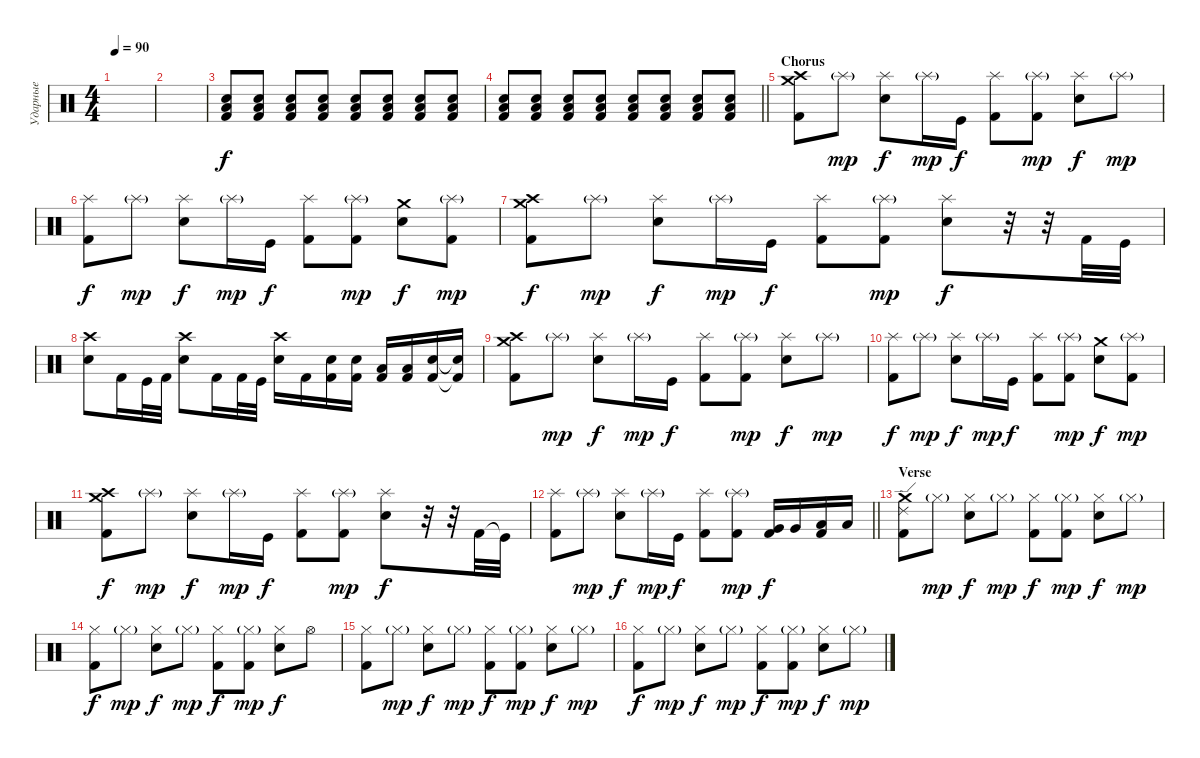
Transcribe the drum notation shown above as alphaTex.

\track ("Ударные" "Ударные") {instrument percussion}
\staff {score}
\articulation defaults
\ts (4 4)
\tempo 90
\clef neutral
\ks c
|
|
("Electric Snare (hit)" "Low Floor Tom (hit)" "Kick (hit) 2").8{dy f} ("Electric Snare (hit)" "Low Floor Tom (hit)" "Kick (hit) 2").8 ("Electric Snare (hit)" "Low Floor Tom (hit)" "Kick (hit) 2").8 ("Electric Snare (hit)" "Low Floor Tom (hit)" "Kick (hit) 2").8 ("Electric Snare (hit)" "Low Floor Tom (hit)" "Kick (hit) 2").8 ("Electric Snare (hit)" "Low Floor Tom (hit)" "Kick (hit) 2").8 ("Electric Snare (hit)" "Low Floor Tom (hit)" "Kick (hit) 2").8 ("Electric Snare (hit)" "Low Floor Tom (hit)" "Kick (hit) 2").8 |
\barLineRight lightlight
("Electric Snare (hit)" "Low Floor Tom (hit)" "Kick (hit) 2").8 ("Electric Snare (hit)" "Low Floor Tom (hit)" "Kick (hit) 2").8 ("Electric Snare (hit)" "Low Floor Tom (hit)" "Kick (hit) 2").8 ("Electric Snare (hit)" "Low Floor Tom (hit)" "Kick (hit) 2").8 ("Electric Snare (hit)" "Low Floor Tom (hit)" "Kick (hit) 2").8 ("Electric Snare (hit)" "Low Floor Tom (hit)" "Kick (hit) 2").8 ("Electric Snare (hit)" "Low Floor Tom (hit)" "Kick (hit) 2").8 ("Electric Snare (hit)" "Low Floor Tom (hit)" "Kick (hit) 2").8 |
\section ("" "Chorus ")
("Crash medium (hit)" "Crash high (hit)" "Kick (hit) 2").8 "Splash (hit)"{g}.8{dy mp} ("Splash (hit)" "Electric Snare (hit)").8{dy f} "Splash (hit)"{g}.16{dy mp} "Kick (hit)".16{dy f} ("Splash (hit)" "Kick (hit) 2").8 ("Splash (hit)"{g} "Kick (hit) 2").8{dy mp} ("Splash (hit)" "Electric Snare (hit)").8{dy f} "Splash (hit)"{g}.8{dy mp} |
("Splash (hit)" "Kick (hit) 2").8{dy f} "Splash (hit)"{g}.8{dy mp} ("Splash (hit)" "Electric Snare (hit)").8{dy f} "Splash (hit)"{g}.16{dy mp} "Kick (hit)".16{dy f} ("Splash (hit)" "Kick (hit) 2").8 ("Splash (hit)"{g} "Kick (hit) 2").8{dy mp} ("Crash medium (hit)" "Electric Snare (hit)").8{dy f} ("Splash (hit)"{g} "Kick (hit) 2").8{dy mp} |
("Crash medium (hit)" "Crash high (hit)" "Kick (hit) 2").8{dy f} "Splash (hit)"{g}.8{dy mp} ("Splash (hit)" "Electric Snare (hit)").8{dy f} "Splash (hit)"{g}.16{dy mp} "Kick (hit)".16{dy f} ("Splash (hit)" "Kick (hit) 2").8 ("Splash (hit)"{g} "Kick (hit) 2").8{dy mp} ("Splash (hit)" "Electric Snare (hit)").8{dy f} r.32 r.32 "Kick (hit) 2".32 "Kick (hit)".32 |
("Crash high (hit)" "Electric Snare (hit)").8 "Kick (hit) 2".16 "Kick (hit)".32 "Kick (hit) 2".32 ("Crash high (hit)" "Electric Snare (hit)").8 "Kick (hit) 2".16 "Kick (hit) 2".32 "Kick (hit)".32 ("Crash high (hit)" "Electric Snare (hit)").16 "Kick (hit) 2".16 ("Electric Snare (hit)" "Kick (hit) 2").16 ("Electric Snare (hit)" "Kick (hit) 2").16 ("Low Tom (hit)" "Kick (hit) 2").16 ("Low Tom (hit)" "Kick (hit) 2").16 ("Electric Snare (hit)" "Kick (hit) 2").16 ("Electric Snare (hit)"{t} "Kick (hit) 2"{t}).16 |
("Crash medium (hit)" "Crash high (hit)" "Kick (hit) 2").8 "Splash (hit)"{g}.8{dy mp} ("Splash (hit)" "Electric Snare (hit)").8{dy f} "Splash (hit)"{g}.16{dy mp} "Kick (hit)".16{dy f} ("Splash (hit)" "Kick (hit) 2").8 ("Splash (hit)"{g} "Kick (hit) 2").8{dy mp} ("Splash (hit)" "Electric Snare (hit)").8{dy f} "Splash (hit)"{g}.8{dy mp} |
("Splash (hit)" "Kick (hit) 2").8{dy f} "Splash (hit)"{g}.8{dy mp} ("Splash (hit)" "Electric Snare (hit)").8{dy f} "Splash (hit)"{g}.16{dy mp} "Kick (hit)".16{dy f} ("Splash (hit)" "Kick (hit) 2").8 ("Splash (hit)"{g} "Kick (hit) 2").8{dy mp} ("Crash medium (hit)" "Electric Snare (hit)").8{dy f} ("Splash (hit)"{g} "Kick (hit) 2").8{dy mp} |
("Crash medium (hit)" "Crash high (hit)" "Kick (hit) 2").8{dy f} "Splash (hit)"{g}.8{dy mp} ("Splash (hit)" "Electric Snare (hit)").8{dy f} "Splash (hit)"{g}.16{dy mp} "Kick (hit)".16{dy f} ("Splash (hit)" "Kick (hit) 2").8 ("Splash (hit)"{g} "Kick (hit) 2").8{dy mp} ("Splash (hit)" "Electric Snare (hit)").8{dy f} r.32 r.32 "Kick (hit) 2".32 "Kick (hit)"{t}.32 |
\barLineRight lightlight
("Splash (hit)" "Kick (hit) 2").8 "Splash (hit)"{g}.8{dy mp} ("Splash (hit)" "Electric Snare (hit)").8{dy f} "Splash (hit)"{g}.16{dy mp} "Kick (hit)".16{dy f} ("Splash (hit)" "Kick (hit) 2").8 ("Splash (hit)"{g} "Kick (hit) 2").8{dy mp} ("Very Low Tom (hit)" "Kick (hit) 2").16{dy f} "Very Low Tom (hit)".16 ("Low Floor Tom (hit)" "Kick (hit) 2").16 "Low Floor Tom (hit)".16 |
\section ("" "Verse ")
("Crash medium (hit)" "Ride (edge) 2" "Kick (hit) 2").8 "Hi-Hat (closed)"{g}.8{dy mp} ("Hi-Hat (closed)" "Electric Snare (hit)").8{dy f} "Hi-Hat (closed)"{g}.8{dy mp} ("Hi-Hat (closed)" "Kick (hit) 2").8{dy f} ("Hi-Hat (closed)"{g} "Kick (hit) 2").8{dy mp} ("Hi-Hat (closed)" "Electric Snare (hit)").8{dy f} "Hi-Hat (closed)"{g}.8{dy mp} |
("Hi-Hat (closed)" "Kick (hit) 2").8{dy f} "Hi-Hat (closed)"{g}.8{dy mp} ("Hi-Hat (closed)" "Electric Snare (hit)").8{dy f} "Hi-Hat (closed)"{g}.8{dy mp} ("Hi-Hat (closed)" "Kick (hit) 2").8{dy f} ("Hi-Hat (closed)"{g} "Kick (hit) 2").8{dy mp} ("Hi-Hat (closed)" "Electric Snare (hit)").8{dy f} "Hi-Hat (open)".8 |
("Hi-Hat (closed)" "Kick (hit) 2").8 "Hi-Hat (closed)"{g}.8{dy mp} ("Hi-Hat (closed)" "Electric Snare (hit)").8{dy f} "Hi-Hat (closed)"{g}.8{dy mp} ("Hi-Hat (closed)" "Kick (hit) 2").8{dy f} ("Hi-Hat (closed)"{g} "Kick (hit) 2").8{dy mp} ("Hi-Hat (closed)" "Electric Snare (hit)").8{dy f} "Hi-Hat (closed)"{g}.8{dy mp} |
("Hi-Hat (closed)" "Kick (hit) 2").8{dy f} "Hi-Hat (closed)"{g}.8{dy mp} ("Hi-Hat (closed)" "Electric Snare (hit)").8{dy f} "Hi-Hat (closed)"{g}.8{dy mp} ("Hi-Hat (closed)" "Kick (hit) 2").8{dy f} ("Hi-Hat (closed)"{g} "Kick (hit) 2").8{dy mp} ("Hi-Hat (closed)" "Electric Snare (hit)").8{dy f} "Hi-Hat (closed)"{g}.8{dy mp}
